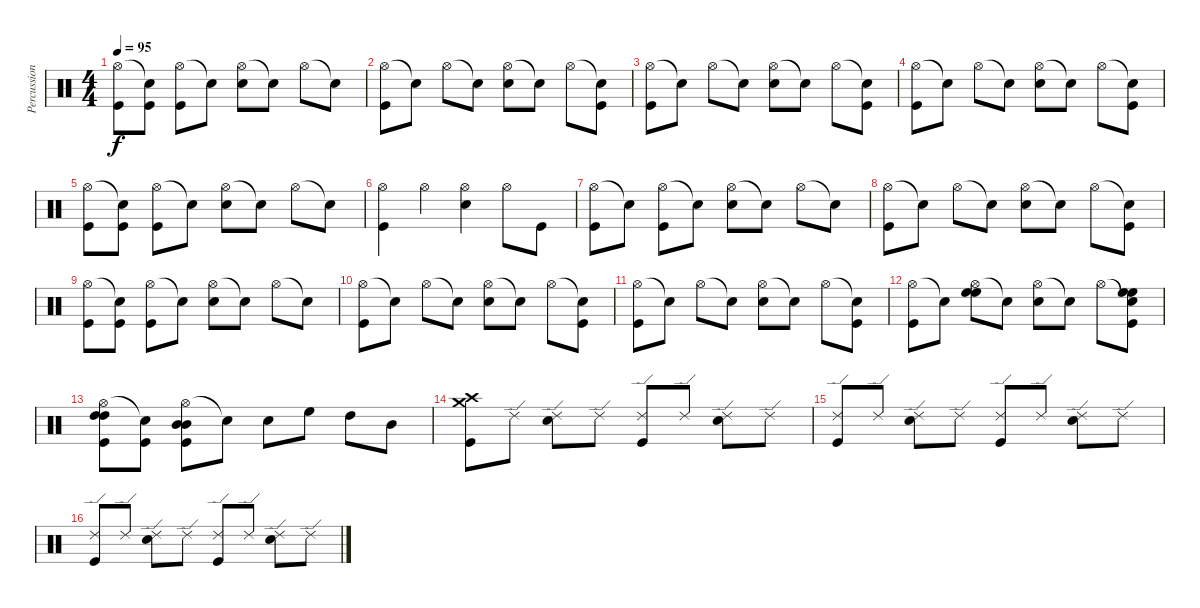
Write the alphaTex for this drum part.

\track ("Percussion" "Percussion") {instrument percussion}
\staff {score}
\articulation defaults
\ts (4 4)
\tempo 95
\clef neutral
\ks c
("Hi-Hat (open)" "Kick (hit)").8{dy f} ("Snare (hit)"{t} "Kick (hit)").8 ("Hi-Hat (open)" "Kick (hit)").8 "Snare (hit)"{t}.8 ("Hi-Hat (open)" "Snare (hit) 2").8 "Snare (hit)"{t}.8 "Hi-Hat (open)".8 "Snare (hit)"{t}.8 |
("Hi-Hat (open)" "Kick (hit)").8 "Snare (hit)"{t}.8 "Hi-Hat (open)".8 "Snare (hit)"{t}.8 ("Hi-Hat (open)" "Snare (hit) 2").8 "Snare (hit)"{t}.8 "Hi-Hat (open)".8 ("Snare (hit)"{t} "Kick (hit)").8 |
("Hi-Hat (open)" "Kick (hit)").8 "Snare (hit)"{t}.8 "Hi-Hat (open)".8 "Snare (hit)"{t}.8 ("Hi-Hat (open)" "Snare (hit) 2").8 "Snare (hit)"{t}.8 "Hi-Hat (open)".8 ("Snare (hit)"{t} "Kick (hit)").8 |
("Hi-Hat (open)" "Kick (hit)").8 "Snare (hit)"{t}.8 "Hi-Hat (open)".8 "Snare (hit)"{t}.8 ("Hi-Hat (open)" "Snare (hit) 2").8 "Snare (hit)"{t}.8 "Hi-Hat (open)".8 ("Snare (hit)"{t} "Kick (hit)").8 |
("Hi-Hat (open)" "Kick (hit)").8 ("Snare (hit)"{t} "Kick (hit)").8 ("Hi-Hat (open)" "Kick (hit)").8 "Snare (hit)"{t}.8 ("Hi-Hat (open)" "Snare (hit) 2").8 "Snare (hit)"{t}.8 "Hi-Hat (open)".8 "Snare (hit)"{t}.8 |
("Hi-Hat (open)" "Kick (hit)").4 "Hi-Hat (open)".4 ("Hi-Hat (open)" "Snare (hit) 2").4 "Hi-Hat (open)".8 "Kick (hit)".8 |
("Hi-Hat (open)" "Kick (hit)").8 "Snare (hit)"{t}.8 ("Hi-Hat (open)" "Kick (hit)").8 "Snare (hit)"{t}.8 ("Hi-Hat (open)" "Snare (hit) 2").8 "Snare (hit)"{t}.8 "Hi-Hat (open)".8 "Snare (hit)"{t}.8 |
("Hi-Hat (open)" "Kick (hit)").8 "Snare (hit)"{t}.8 "Hi-Hat (open)".8 "Snare (hit)"{t}.8 ("Hi-Hat (open)" "Snare (hit) 2").8 "Snare (hit)"{t}.8 "Hi-Hat (open)".8 ("Snare (hit)"{t} "Kick (hit)").8 |
("Hi-Hat (open)" "Kick (hit)").8 ("Snare (hit)"{t} "Kick (hit)").8 ("Hi-Hat (open)" "Kick (hit)").8 "Snare (hit)"{t}.8 ("Hi-Hat (open)" "Snare (hit) 2").8 "Snare (hit)"{t}.8 "Hi-Hat (open)".8 "Snare (hit)"{t}.8 |
("Hi-Hat (open)" "Kick (hit)").8 "Snare (hit)"{t}.8 "Hi-Hat (open)".8 "Snare (hit)"{t}.8 ("Hi-Hat (open)" "Snare (hit) 2").8 "Snare (hit)"{t}.8 "Hi-Hat (open)".8 ("Snare (hit)"{t} "Kick (hit)").8 |
("Hi-Hat (open)" "Kick (hit)").8 "Snare (hit)"{t}.8 "Hi-Hat (open)".8 "Snare (hit)"{t}.8 ("Hi-Hat (open)" "Snare (hit) 2").8 "Snare (hit)"{t}.8 "Hi-Hat (open)".8 ("Snare (hit)"{t} "Kick (hit)").8 |
("Hi-Hat (open)" "Kick (hit)").8 "Snare (hit)"{t}.8 ("Hi-Hat (open)" "High Floor Tom (hit)" "High Floor Tom (hit)").8 "Snare (hit)"{t}.8 ("Hi-Hat (open)" "Snare (hit) 2").8 "Snare (hit)"{t}.8 "Hi-Hat (open)".8 ("Snare (hit)"{t} "High Floor Tom (hit)" "Kick (hit)" "High Floor Tom (hit)").8 |
("Hi-Hat (open)" "High Tom (hit)" "Kick (hit)" "High Tom (hit)").8 ("Snare (hit)"{t} "Kick (hit)").8 ("Hi-Hat (open)" "Mid Tom (hit)" "Kick (hit)" "Mid Tom (hit)").8 "Snare (hit)"{t}.8 "Snare (hit) 2".8 "High Floor Tom (hit)".8 "High Tom (hit)".8 "Mid Tom (hit)".8 |
("Crash medium (hit)" "Crash high (hit)" "Kick (hit)").8 "Ride (edge) 2".8 ("Ride (edge) 2" "Electric Snare (hit)").8 "Ride (edge) 2".8 ("Ride (edge) 2" "Kick (hit)").8 "Ride (edge) 2".8 ("Ride (edge) 2" "Electric Snare (hit)").8 "Ride (edge) 2".8 |
("Ride (edge) 2" "Kick (hit)").8 "Ride (edge) 2".8 ("Ride (edge) 2" "Electric Snare (hit)").8 "Ride (edge) 2".8 ("Ride (edge) 2" "Kick (hit)").8 "Ride (edge) 2".8 ("Ride (edge) 2" "Electric Snare (hit)").8 "Ride (edge) 2".8 |
("Ride (edge) 2" "Kick (hit)").8 "Ride (edge) 2".8 ("Ride (edge) 2" "Electric Snare (hit)").8 "Ride (edge) 2".8 ("Ride (edge) 2" "Kick (hit)").8 "Ride (edge) 2".8 ("Ride (edge) 2" "Electric Snare (hit)").8 "Ride (edge) 2".8
